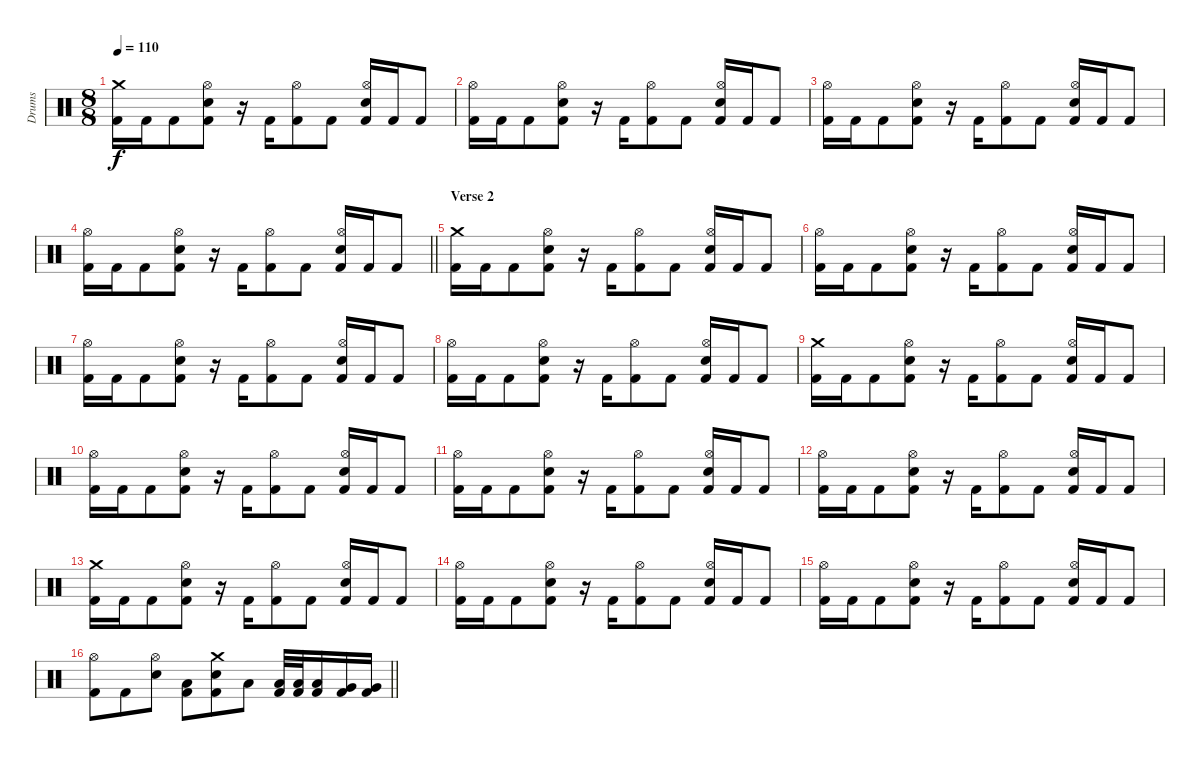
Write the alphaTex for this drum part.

\track ("Drums" "Drums") {instrument percussion}
\staff {score}
\articulation defaults
\ts (8 8)
\tempo 110
\clef neutral
\ks c
("Crash medium (hit)" "Kick (hit) 2").16{dy f} "Kick (hit) 2".16 "Kick (hit) 2".8 ("Hi-Hat (open)" "Electric Snare (hit)" "Kick (hit) 2").8 r.16 "Kick (hit) 2".16 ("Hi-Hat (open)" "Kick (hit) 2").8 "Kick (hit) 2".8 ("Hi-Hat (open)" "Electric Snare (hit)" "Kick (hit) 2").16 "Kick (hit) 2".16 "Kick (hit) 2".8 |
("Hi-Hat (open)" "Kick (hit) 2").16 "Kick (hit) 2".16 "Kick (hit) 2".8 ("Hi-Hat (open)" "Electric Snare (hit)" "Kick (hit) 2").8 r.16 "Kick (hit) 2".16 ("Hi-Hat (open)" "Kick (hit) 2").8 "Kick (hit) 2".8 ("Hi-Hat (open)" "Electric Snare (hit)" "Kick (hit) 2").16 "Kick (hit) 2".16 "Kick (hit) 2".8 |
("Hi-Hat (open)" "Kick (hit) 2").16 "Kick (hit) 2".16 "Kick (hit) 2".8 ("Hi-Hat (open)" "Electric Snare (hit)" "Kick (hit) 2").8 r.16 "Kick (hit) 2".16 ("Hi-Hat (open)" "Kick (hit) 2").8 "Kick (hit) 2".8 ("Hi-Hat (open)" "Electric Snare (hit)" "Kick (hit) 2").16 "Kick (hit) 2".16 "Kick (hit) 2".8 |
\barLineRight lightlight
("Hi-Hat (open)" "Kick (hit) 2").16 "Kick (hit) 2".16 "Kick (hit) 2".8 ("Hi-Hat (open)" "Electric Snare (hit)" "Kick (hit) 2").8 r.16 "Kick (hit) 2".16 ("Hi-Hat (open)" "Kick (hit) 2").8 "Kick (hit) 2".8 ("Hi-Hat (open)" "Electric Snare (hit)" "Kick (hit) 2").16 "Kick (hit) 2".16 "Kick (hit) 2".8 |
\section ("" "Verse 2")
("Crash medium (hit)" "Kick (hit) 2").16 "Kick (hit) 2".16 "Kick (hit) 2".8 ("Hi-Hat (open)" "Electric Snare (hit)" "Kick (hit) 2").8 r.16 "Kick (hit) 2".16 ("Hi-Hat (open)" "Kick (hit) 2").8 "Kick (hit) 2".8 ("Hi-Hat (open)" "Electric Snare (hit)" "Kick (hit) 2").16 "Kick (hit) 2".16 "Kick (hit) 2".8 |
("Hi-Hat (open)" "Kick (hit) 2").16 "Kick (hit) 2".16 "Kick (hit) 2".8 ("Hi-Hat (open)" "Electric Snare (hit)" "Kick (hit) 2").8 r.16 "Kick (hit) 2".16 ("Hi-Hat (open)" "Kick (hit) 2").8 "Kick (hit) 2".8 ("Hi-Hat (open)" "Electric Snare (hit)" "Kick (hit) 2").16 "Kick (hit) 2".16 "Kick (hit) 2".8 |
("Hi-Hat (open)" "Kick (hit) 2").16 "Kick (hit) 2".16 "Kick (hit) 2".8 ("Hi-Hat (open)" "Electric Snare (hit)" "Kick (hit) 2").8 r.16 "Kick (hit) 2".16 ("Hi-Hat (open)" "Kick (hit) 2").8 "Kick (hit) 2".8 ("Hi-Hat (open)" "Electric Snare (hit)" "Kick (hit) 2").16 "Kick (hit) 2".16 "Kick (hit) 2".8 |
("Hi-Hat (open)" "Kick (hit) 2").16 "Kick (hit) 2".16 "Kick (hit) 2".8 ("Hi-Hat (open)" "Electric Snare (hit)" "Kick (hit) 2").8 r.16 "Kick (hit) 2".16 ("Hi-Hat (open)" "Kick (hit) 2").8 "Kick (hit) 2".8 ("Hi-Hat (open)" "Electric Snare (hit)" "Kick (hit) 2").16 "Kick (hit) 2".16 "Kick (hit) 2".8 |
("Crash medium (hit)" "Kick (hit) 2").16 "Kick (hit) 2".16 "Kick (hit) 2".8 ("Hi-Hat (open)" "Electric Snare (hit)" "Kick (hit) 2").8 r.16 "Kick (hit) 2".16 ("Hi-Hat (open)" "Kick (hit) 2").8 "Kick (hit) 2".8 ("Hi-Hat (open)" "Electric Snare (hit)" "Kick (hit) 2").16 "Kick (hit) 2".16 "Kick (hit) 2".8 |
("Hi-Hat (open)" "Kick (hit) 2").16 "Kick (hit) 2".16 "Kick (hit) 2".8 ("Hi-Hat (open)" "Electric Snare (hit)" "Kick (hit) 2").8 r.16 "Kick (hit) 2".16 ("Hi-Hat (open)" "Kick (hit) 2").8 "Kick (hit) 2".8 ("Hi-Hat (open)" "Electric Snare (hit)" "Kick (hit) 2").16 "Kick (hit) 2".16 "Kick (hit) 2".8 |
("Hi-Hat (open)" "Kick (hit) 2").16 "Kick (hit) 2".16 "Kick (hit) 2".8 ("Hi-Hat (open)" "Electric Snare (hit)" "Kick (hit) 2").8 r.16 "Kick (hit) 2".16 ("Hi-Hat (open)" "Kick (hit) 2").8 "Kick (hit) 2".8 ("Hi-Hat (open)" "Electric Snare (hit)" "Kick (hit) 2").16 "Kick (hit) 2".16 "Kick (hit) 2".8 |
("Hi-Hat (open)" "Kick (hit) 2").16 "Kick (hit) 2".16 "Kick (hit) 2".8 ("Hi-Hat (open)" "Electric Snare (hit)" "Kick (hit) 2").8 r.16 "Kick (hit) 2".16 ("Hi-Hat (open)" "Kick (hit) 2").8 "Kick (hit) 2".8 ("Hi-Hat (open)" "Electric Snare (hit)" "Kick (hit) 2").16 "Kick (hit) 2".16 "Kick (hit) 2".8 |
("Crash medium (hit)" "Kick (hit) 2").16 "Kick (hit) 2".16 "Kick (hit) 2".8 ("Hi-Hat (open)" "Electric Snare (hit)" "Kick (hit) 2").8 r.16 "Kick (hit) 2".16 ("Hi-Hat (open)" "Kick (hit) 2").8 "Kick (hit) 2".8 ("Hi-Hat (open)" "Electric Snare (hit)" "Kick (hit) 2").16 "Kick (hit) 2".16 "Kick (hit) 2".8 |
("Hi-Hat (open)" "Kick (hit) 2").16 "Kick (hit) 2".16 "Kick (hit) 2".8 ("Hi-Hat (open)" "Electric Snare (hit)" "Kick (hit) 2").8 r.16 "Kick (hit) 2".16 ("Hi-Hat (open)" "Kick (hit) 2").8 "Kick (hit) 2".8 ("Hi-Hat (open)" "Electric Snare (hit)" "Kick (hit) 2").16 "Kick (hit) 2".16 "Kick (hit) 2".8 |
("Hi-Hat (open)" "Kick (hit) 2").16 "Kick (hit) 2".16 "Kick (hit) 2".8 ("Hi-Hat (open)" "Electric Snare (hit)" "Kick (hit) 2").8 r.16 "Kick (hit) 2".16 ("Hi-Hat (open)" "Kick (hit) 2").8 "Kick (hit) 2".8 ("Hi-Hat (open)" "Electric Snare (hit)" "Kick (hit) 2").16 "Kick (hit) 2".16 "Kick (hit) 2".8 |
\barLineRight lightlight
("Hi-Hat (open)" "Kick (hit) 2").8 "Kick (hit) 2".8 ("Hi-Hat (open)" "Electric Snare (hit)").8 ("Low Tom (hit)" "Kick (hit) 2").8 ("Crash medium (hit)" "Electric Snare (hit)" "Kick (hit) 2").8 "Low Tom (hit)".8 ("Low Tom (hit)" "Kick (hit) 2").32 ("Low Tom (hit)" "Kick (hit) 2").32 ("Low Tom (hit)" "Kick (hit) 2").16 ("Very Low Tom (hit)" "Kick (hit) 2").16 ("Very Low Tom (hit)" "Kick (hit) 2").16
